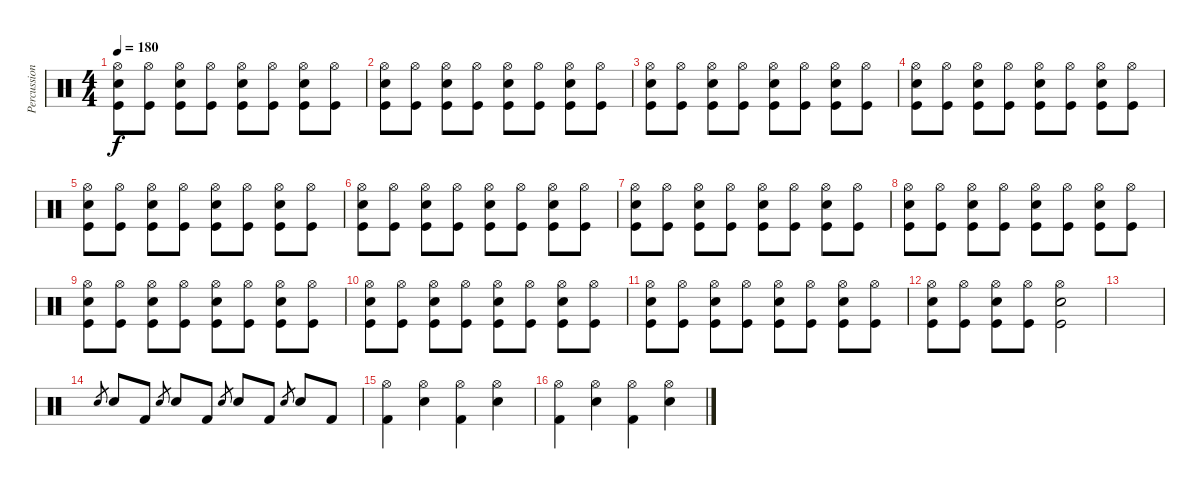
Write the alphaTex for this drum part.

\track ("Percussion" "Percussion") {instrument percussion}
\staff {score}
\articulation defaults
\ts (4 4)
\tempo 180
\clef neutral
\ks c
("Hi-Hat (open)" "Snare (hit) 2" "Kick (hit)").8{dy f} ("Hi-Hat (open)" "Kick (hit)").8 ("Hi-Hat (open)" "Snare (hit) 2" "Kick (hit)").8 ("Hi-Hat (open)" "Kick (hit)").8 ("Hi-Hat (open)" "Snare (hit) 2" "Kick (hit)").8 ("Hi-Hat (open)" "Kick (hit)").8 ("Hi-Hat (open)" "Snare (hit) 2" "Kick (hit)").8 ("Hi-Hat (open)" "Kick (hit)").8 |
("Hi-Hat (open)" "Snare (hit) 2" "Kick (hit)").8 ("Hi-Hat (open)" "Kick (hit)").8 ("Hi-Hat (open)" "Snare (hit) 2" "Kick (hit)").8 ("Hi-Hat (open)" "Kick (hit)").8 ("Hi-Hat (open)" "Snare (hit) 2" "Kick (hit)").8 ("Hi-Hat (open)" "Kick (hit)").8 ("Hi-Hat (open)" "Snare (hit) 2" "Kick (hit)").8 ("Hi-Hat (open)" "Kick (hit)").8 |
("Hi-Hat (open)" "Snare (hit) 2" "Kick (hit)").8 ("Hi-Hat (open)" "Kick (hit)").8 ("Hi-Hat (open)" "Snare (hit) 2" "Kick (hit)").8 ("Hi-Hat (open)" "Kick (hit)").8 ("Hi-Hat (open)" "Snare (hit) 2" "Kick (hit)").8 ("Hi-Hat (open)" "Kick (hit)").8 ("Hi-Hat (open)" "Snare (hit) 2" "Kick (hit)").8 ("Hi-Hat (open)" "Kick (hit)").8 |
("Hi-Hat (open)" "Snare (hit) 2" "Kick (hit)").8 ("Hi-Hat (open)" "Kick (hit)").8 ("Hi-Hat (open)" "Snare (hit) 2" "Kick (hit)").8 ("Hi-Hat (open)" "Kick (hit)").8 ("Hi-Hat (open)" "Snare (hit) 2" "Kick (hit)").8 ("Hi-Hat (open)" "Kick (hit)").8 ("Hi-Hat (open)" "Snare (hit) 2" "Kick (hit)").8 ("Hi-Hat (open)" "Kick (hit)").8 |
("Hi-Hat (open)" "Snare (hit) 2" "Kick (hit)").8 ("Hi-Hat (open)" "Kick (hit)").8 ("Hi-Hat (open)" "Snare (hit) 2" "Kick (hit)").8 ("Hi-Hat (open)" "Kick (hit)").8 ("Hi-Hat (open)" "Snare (hit) 2" "Kick (hit)").8 ("Hi-Hat (open)" "Kick (hit)").8 ("Hi-Hat (open)" "Snare (hit) 2" "Kick (hit)").8 ("Hi-Hat (open)" "Kick (hit)").8 |
("Hi-Hat (open)" "Snare (hit) 2" "Kick (hit)").8 ("Hi-Hat (open)" "Kick (hit)").8 ("Hi-Hat (open)" "Snare (hit) 2" "Kick (hit)").8 ("Hi-Hat (open)" "Kick (hit)").8 ("Hi-Hat (open)" "Snare (hit) 2" "Kick (hit)").8 ("Hi-Hat (open)" "Kick (hit)").8 ("Hi-Hat (open)" "Snare (hit) 2" "Kick (hit)").8 ("Hi-Hat (open)" "Kick (hit)").8 |
("Hi-Hat (open)" "Snare (hit) 2" "Kick (hit)").8 ("Hi-Hat (open)" "Kick (hit)").8 ("Hi-Hat (open)" "Snare (hit) 2" "Kick (hit)").8 ("Hi-Hat (open)" "Kick (hit)").8 ("Hi-Hat (open)" "Snare (hit) 2" "Kick (hit)").8 ("Hi-Hat (open)" "Kick (hit)").8 ("Hi-Hat (open)" "Snare (hit) 2" "Kick (hit)").8 ("Hi-Hat (open)" "Kick (hit)").8 |
("Hi-Hat (open)" "Snare (hit) 2" "Kick (hit)").8 ("Hi-Hat (open)" "Kick (hit)").8 ("Hi-Hat (open)" "Snare (hit) 2" "Kick (hit)").8 ("Hi-Hat (open)" "Kick (hit)").8 ("Hi-Hat (open)" "Snare (hit) 2" "Kick (hit)").8 ("Hi-Hat (open)" "Kick (hit)").8 ("Hi-Hat (open)" "Snare (hit) 2" "Kick (hit)").8 ("Hi-Hat (open)" "Kick (hit)").8 |
("Hi-Hat (open)" "Snare (hit) 2" "Kick (hit)").8 ("Hi-Hat (open)" "Kick (hit)").8 ("Hi-Hat (open)" "Snare (hit) 2" "Kick (hit)").8 ("Hi-Hat (open)" "Kick (hit)").8 ("Hi-Hat (open)" "Snare (hit) 2" "Kick (hit)").8 ("Hi-Hat (open)" "Kick (hit)").8 ("Hi-Hat (open)" "Snare (hit) 2" "Kick (hit)").8 ("Hi-Hat (open)" "Kick (hit)").8 |
("Hi-Hat (open)" "Snare (hit) 2" "Kick (hit)").8 ("Hi-Hat (open)" "Kick (hit)").8 ("Hi-Hat (open)" "Snare (hit) 2" "Kick (hit)").8 ("Hi-Hat (open)" "Kick (hit)").8 ("Hi-Hat (open)" "Snare (hit) 2" "Kick (hit)").8 ("Hi-Hat (open)" "Kick (hit)").8 ("Hi-Hat (open)" "Snare (hit) 2" "Kick (hit)").8 ("Hi-Hat (open)" "Kick (hit)").8 |
("Hi-Hat (open)" "Snare (hit) 2" "Kick (hit)").8 ("Hi-Hat (open)" "Kick (hit)").8 ("Hi-Hat (open)" "Snare (hit) 2" "Kick (hit)").8 ("Hi-Hat (open)" "Kick (hit)").8 ("Hi-Hat (open)" "Snare (hit) 2" "Kick (hit)").8 ("Hi-Hat (open)" "Kick (hit)").8 ("Hi-Hat (open)" "Snare (hit) 2" "Kick (hit)").8 ("Hi-Hat (open)" "Kick (hit)").8 |
("Hi-Hat (open)" "Snare (hit) 2" "Kick (hit)").8 ("Hi-Hat (open)" "Kick (hit)").8 ("Hi-Hat (open)" "Snare (hit) 2" "Kick (hit)").8 ("Hi-Hat (open)" "Kick (hit)").8 ("Hi-Hat (open)" "Snare (hit) 2" "Kick (hit)").2 |
|
"Snare (hit) 2".8{gr} "Snare (hit) 2".8 "Kick (hit) 2".8 "Snare (hit) 2".8{gr} "Snare (hit) 2".8 "Kick (hit) 2".8 "Snare (hit) 2".8{gr} "Snare (hit) 2".8 "Kick (hit) 2".8 "Snare (hit) 2".8{gr} "Snare (hit) 2".8 "Kick (hit) 2".8 |
("Hi-Hat (open)" "Kick (hit) 2").4 ("Hi-Hat (open)" "Snare (hit) 2").4 ("Hi-Hat (open)" "Kick (hit) 2").4 ("Hi-Hat (open)" "Snare (hit) 2").4 |
("Hi-Hat (open)" "Kick (hit) 2").4 ("Hi-Hat (open)" "Snare (hit) 2").4 ("Hi-Hat (open)" "Kick (hit) 2").4 ("Hi-Hat (open)" "Snare (hit) 2").4
